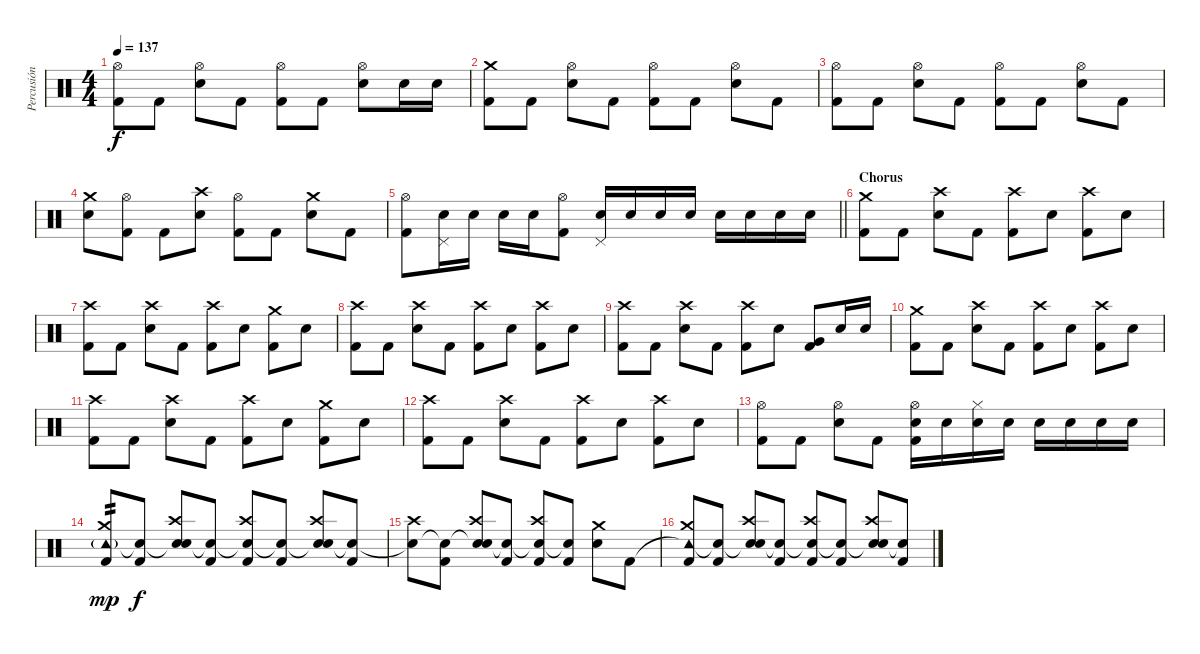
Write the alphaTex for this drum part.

\track ("Percusión" "Percusión") {instrument percussion}
\staff {score}
\articulation defaults
\ts (4 4)
\tempo 137
\clef neutral
\ks c
("Hi-Hat (open)" "Kick (hit) 2").8{dy f} "Kick (hit) 2".8 ("Hi-Hat (open)" "Electric Snare (hit)").8 "Kick (hit) 2".8 ("Hi-Hat (open)" "Kick (hit) 2").8 "Kick (hit) 2".8 ("Hi-Hat (open)" "Electric Snare (hit)").8 "Electric Snare (hit)".16 "Electric Snare (hit)".16 |
("Crash medium (hit)" "Kick (hit) 2").8 "Kick (hit) 2".8 ("Hi-Hat (open)" "Electric Snare (hit)").8 "Kick (hit) 2".8 ("Hi-Hat (open)" "Kick (hit) 2").8 "Kick (hit) 2".8 ("Hi-Hat (open)" "Electric Snare (hit)").8 "Kick (hit) 2".8 |
("Hi-Hat (open)" "Kick (hit) 2").8 "Kick (hit) 2".8 ("Hi-Hat (open)" "Electric Snare (hit)").8 "Kick (hit) 2".8 ("Hi-Hat (open)" "Kick (hit) 2").8 "Kick (hit) 2".8 ("Hi-Hat (open)" "Electric Snare (hit)").8 "Kick (hit) 2".8 |
("Crash medium (hit)" "Electric Snare (hit)").8 ("Hi-Hat (open)" "Kick (hit) 2").8 "Kick (hit) 2".8 ("Crash high (hit)" "Electric Snare (hit)").8 ("Hi-Hat (open)" "Kick (hit) 2").8 "Kick (hit) 2".8 ("Crash medium (hit)" "Electric Snare (hit)").8 "Kick (hit) 2".8 |
\barLineRight lightlight
("Hi-Hat (open)" "Kick (hit) 2").8 ("Pedal Hi-Hat (hit)" "Electric Snare (hit)").16 "Electric Snare (hit)".16 "Electric Snare (hit)".16 "Electric Snare (hit)".16 ("Hi-Hat (open)" "Kick (hit) 2").8 ("Pedal Hi-Hat (hit)" "Electric Snare (hit)").16 "Electric Snare (hit)".16 "Electric Snare (hit)".16 "Electric Snare (hit)".16 "Electric Snare (hit)".16 "Electric Snare (hit)".16 "Electric Snare (hit)".16 "Electric Snare (hit)".16 |
\section ("" "Chorus")
("Crash medium (hit)" "Kick (hit) 2").8 "Kick (hit) 2".8 ("Crash high (hit)" "Electric Snare (hit)").8 "Kick (hit) 2".8 ("Crash high (hit)" "Kick (hit) 2").8 "Electric Snare (hit)".8 ("Crash high (hit)" "Kick (hit) 2").8 "Electric Snare (hit)".8 |
("Crash high (hit)" "Kick (hit) 2").8 "Kick (hit) 2".8 ("Crash high (hit)" "Electric Snare (hit)").8 "Kick (hit) 2".8 ("Crash high (hit)" "Kick (hit) 2").8 "Electric Snare (hit)".8 ("Crash medium (hit)" "Kick (hit) 2").8 "Electric Snare (hit)".8 |
("Crash high (hit)" "Kick (hit) 2").8 "Kick (hit) 2".8 ("Crash high (hit)" "Electric Snare (hit)").8 "Kick (hit) 2".8 ("Crash high (hit)" "Kick (hit) 2").8 "Electric Snare (hit)".8 ("Crash high (hit)" "Kick (hit) 2").8 "Electric Snare (hit)".8 |
("Crash high (hit)" "Kick (hit) 2").8 "Kick (hit) 2".8 ("Crash high (hit)" "Electric Snare (hit)").8 "Kick (hit) 2".8 ("Crash high (hit)" "Kick (hit) 2").8 "Electric Snare (hit)".8 ("Very Low Tom (hit)" "Kick (hit) 2").8 "Electric Snare (hit)".16 "Electric Snare (hit)".16 |
("Crash medium (hit)" "Kick (hit) 2").8 "Kick (hit) 2".8 ("Crash high (hit)" "Electric Snare (hit)").8 "Kick (hit) 2".8 ("Crash high (hit)" "Kick (hit) 2").8 "Electric Snare (hit)".8 ("Crash high (hit)" "Kick (hit) 2").8 "Electric Snare (hit)".8 |
("Crash high (hit)" "Kick (hit) 2").8 "Kick (hit) 2".8 ("Crash high (hit)" "Electric Snare (hit)").8 "Kick (hit) 2".8 ("Crash high (hit)" "Kick (hit) 2").8 "Electric Snare (hit)".8 ("Crash medium (hit)" "Kick (hit) 2").8 "Electric Snare (hit)".8 |
("Crash high (hit)" "Kick (hit) 2").8 "Kick (hit) 2".8 ("Crash high (hit)" "Electric Snare (hit)").8 "Kick (hit) 2".8 ("Crash high (hit)" "Kick (hit) 2").8 "Electric Snare (hit)".8 ("Crash high (hit)" "Kick (hit) 2").8 "Electric Snare (hit)".8 |
("Hi-Hat (open)" "Kick (hit) 2").8 "Kick (hit) 2".8 ("Hi-Hat (open)" "Electric Snare (hit)").8 "Kick (hit) 2".8 ("Hi-Hat (open)" "Electric Snare (hit)" "Kick (hit) 2").16 "Electric Snare (hit)".16 ("Hi-Hat (closed)" "Electric Snare (hit)").16 "Electric Snare (hit)".16 "Electric Snare (hit)".16 "Electric Snare (hit)".16 "Electric Snare (hit)".16 "Electric Snare (hit)".16 |
("Tambourine (hit)"{g} "Crash medium (hit)" "Kick (hit) 2").8{tp 2 dy mp} ("Snare (hit)"{t} "Kick (hit) 2").8{dy f} ("Snare (hit)"{t} "Crash high (hit)" "Electric Snare (hit)").8 ("Snare (hit)"{t} "Kick (hit) 2").8 ("Snare (hit)"{t} "Crash high (hit)" "Kick (hit) 2").8 ("Snare (hit)"{t} "Kick (hit) 2").8 ("Snare (hit)"{t} "Crash high (hit)" "Electric Snare (hit)").8 ("Snare (hit)"{t} "Kick (hit) 2").8 |
("Snare (hit)"{t} "Crash high (hit)").8 ("Snare (hit)"{t} "Kick (hit) 2").8 ("Snare (hit)"{t} "Crash high (hit)" "Electric Snare (hit)").8 ("Snare (hit)"{t} "Kick (hit) 2").8 ("Snare (hit)"{t} "Crash high (hit)" "Kick (hit) 2").8 ("Snare (hit)"{t} "Kick (hit) 2").8 ("Crash medium (hit)" "Electric Snare (hit)").8 "Kick (hit) 2".8 |
("Tambourine (hit)"{t} "Crash medium (hit)" "Kick (hit) 2").8 ("Snare (hit)"{t} "Kick (hit) 2").8 ("Snare (hit)"{t} "Crash high (hit)" "Electric Snare (hit)").8 ("Snare (hit)"{t} "Kick (hit) 2").8 ("Snare (hit)"{t} "Crash high (hit)" "Kick (hit) 2").8 ("Snare (hit)"{t} "Kick (hit) 2").8 ("Snare (hit)"{t} "Crash high (hit)" "Electric Snare (hit)").8 ("Snare (hit)"{t} "Kick (hit) 2").8
